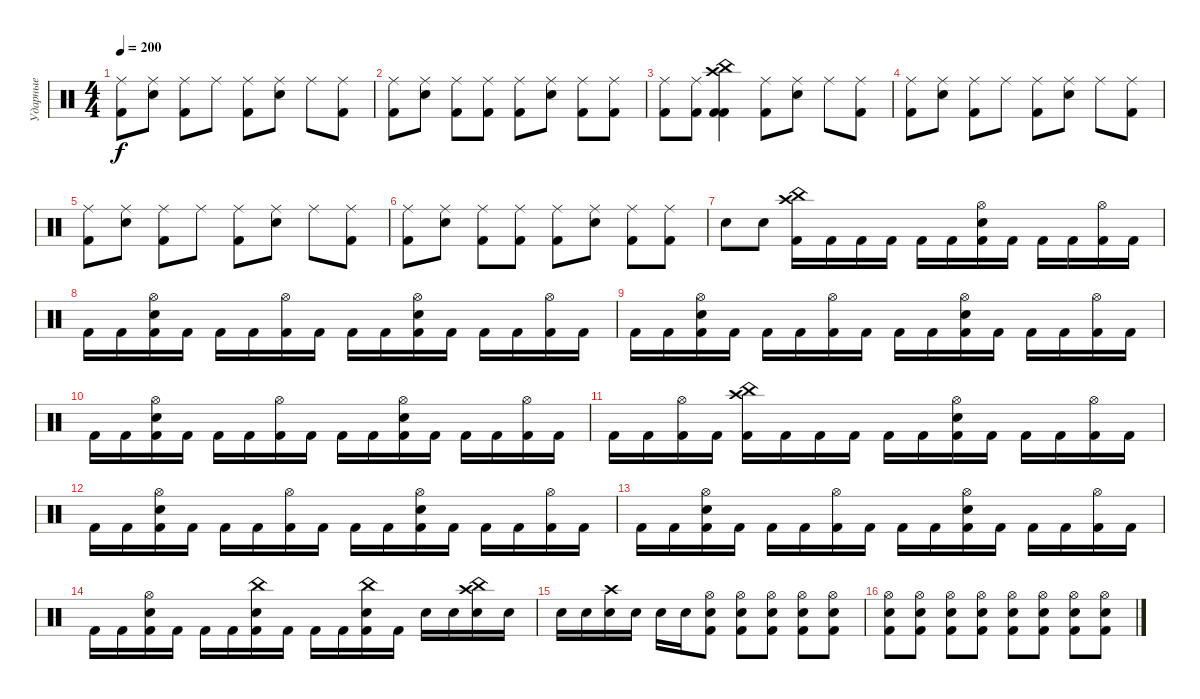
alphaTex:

\track ("Ударные" "Ударные") {instrument percussion}
\staff {score}
\articulation defaults
\ts (4 4)
\tempo 200
\clef neutral
\ks c
("Kick (hit) 2" "Ride (middle)").8{dy f} ("Electric Snare (hit)" "Ride (middle)").8 ("Kick (hit) 2" "Ride (middle)").8 "Ride (middle)".8 ("Kick (hit) 2" "Ride (middle)").8 ("Electric Snare (hit)" "Ride (middle)").8 "Ride (middle)".8 ("Kick (hit) 2" "Ride (middle)").8 |
("Kick (hit) 2" "Ride (middle)").8 ("Electric Snare (hit)" "Ride (middle)").8 ("Kick (hit) 2" "Ride (middle)").8 ("Kick (hit) 2" "Ride (middle)").8 ("Kick (hit) 2" "Ride (middle)").8 ("Electric Snare (hit)" "Ride (middle)").8 ("Kick (hit) 2" "Ride (middle)").8 ("Kick (hit) 2" "Ride (middle)").8 |
("Kick (hit) 2" "Ride (middle)").8 ("Kick (hit) 2" "Ride (middle)").8 ("Kick (hit) 2" "China (hit)" "Crash high (hit)" "Kick (hit) 2").4 ("Kick (hit) 2" "Ride (middle)").8 ("Electric Snare (hit)" "Ride (middle)").8 "Ride (middle)".8 ("Kick (hit) 2" "Ride (middle)").8 |
("Kick (hit) 2" "Ride (middle)").8 ("Electric Snare (hit)" "Ride (middle)").8 ("Kick (hit) 2" "Ride (middle)").8 "Ride (middle)".8 ("Kick (hit) 2" "Ride (middle)").8 ("Electric Snare (hit)" "Ride (middle)").8 "Ride (middle)".8 ("Kick (hit) 2" "Ride (middle)").8 |
("Kick (hit) 2" "Ride (middle)").8 ("Electric Snare (hit)" "Ride (middle)").8 ("Kick (hit) 2" "Ride (middle)").8 "Ride (middle)".8 ("Kick (hit) 2" "Ride (middle)").8 ("Electric Snare (hit)" "Ride (middle)").8 "Ride (middle)".8 ("Kick (hit) 2" "Ride (middle)").8 |
("Kick (hit) 2" "Ride (middle)").8 ("Electric Snare (hit)" "Ride (middle)").8 ("Kick (hit) 2" "Ride (middle)").8 ("Kick (hit) 2" "Ride (middle)").8 ("Kick (hit) 2" "Ride (middle)").8 ("Electric Snare (hit)" "Ride (middle)").8 ("Kick (hit) 2" "Ride (middle)").8 ("Kick (hit) 2" "Ride (middle)").8 |
"Electric Snare (hit)".8 "Electric Snare (hit)".8 ("Kick (hit) 2" "Crash high (hit)" "China (hit)").16 "Kick (hit) 2".16 "Kick (hit) 2".16 "Kick (hit) 2".16 "Kick (hit) 2".16 "Kick (hit) 2".16 ("Kick (hit) 2" "Electric Snare (hit)" "Hi-Hat (open)").16 "Kick (hit) 2".16 "Kick (hit) 2".16 "Kick (hit) 2".16 ("Kick (hit) 2" "Hi-Hat (open)").16 "Kick (hit) 2".16 |
"Kick (hit) 2".16 "Kick (hit) 2".16 ("Kick (hit) 2" "Electric Snare (hit)" "Hi-Hat (open)").16 "Kick (hit) 2".16 "Kick (hit) 2".16 "Kick (hit) 2".16 ("Kick (hit) 2" "Hi-Hat (open)").16 "Kick (hit) 2".16 "Kick (hit) 2".16 "Kick (hit) 2".16 ("Kick (hit) 2" "Electric Snare (hit)" "Hi-Hat (open)").16 "Kick (hit) 2".16 "Kick (hit) 2".16 "Kick (hit) 2".16 ("Kick (hit) 2" "Hi-Hat (open)").16 "Kick (hit) 2".16 |
"Kick (hit) 2".16 "Kick (hit) 2".16 ("Kick (hit) 2" "Electric Snare (hit)" "Hi-Hat (open)").16 "Kick (hit) 2".16 "Kick (hit) 2".16 "Kick (hit) 2".16 ("Kick (hit) 2" "Hi-Hat (open)").16 "Kick (hit) 2".16 "Kick (hit) 2".16 "Kick (hit) 2".16 ("Kick (hit) 2" "Electric Snare (hit)" "Hi-Hat (open)").16 "Kick (hit) 2".16 "Kick (hit) 2".16 "Kick (hit) 2".16 ("Kick (hit) 2" "Hi-Hat (open)").16 "Kick (hit) 2".16 |
"Kick (hit) 2".16 "Kick (hit) 2".16 ("Kick (hit) 2" "Electric Snare (hit)" "Hi-Hat (open)").16 "Kick (hit) 2".16 "Kick (hit) 2".16 "Kick (hit) 2".16 ("Kick (hit) 2" "Hi-Hat (open)").16 "Kick (hit) 2".16 "Kick (hit) 2".16 "Kick (hit) 2".16 ("Kick (hit) 2" "Electric Snare (hit)" "Hi-Hat (open)").16 "Kick (hit) 2".16 "Kick (hit) 2".16 "Kick (hit) 2".16 ("Kick (hit) 2" "Hi-Hat (open)").16 "Kick (hit) 2".16 |
"Kick (hit) 2".16 "Kick (hit) 2".16 ("Kick (hit) 2" "Hi-Hat (open)").16 "Kick (hit) 2".16 ("Kick (hit) 2" "Crash high (hit)" "China (hit)").16 "Kick (hit) 2".16 "Kick (hit) 2".16 "Kick (hit) 2".16 "Kick (hit) 2".16 "Kick (hit) 2".16 ("Kick (hit) 2" "Electric Snare (hit)" "Hi-Hat (open)").16 "Kick (hit) 2".16 "Kick (hit) 2".16 "Kick (hit) 2".16 ("Kick (hit) 2" "Hi-Hat (open)").16 "Kick (hit) 2".16 |
"Kick (hit) 2".16 "Kick (hit) 2".16 ("Kick (hit) 2" "Electric Snare (hit)" "Hi-Hat (open)").16 "Kick (hit) 2".16 "Kick (hit) 2".16 "Kick (hit) 2".16 ("Kick (hit) 2" "Hi-Hat (open)").16 "Kick (hit) 2".16 "Kick (hit) 2".16 "Kick (hit) 2".16 ("Kick (hit) 2" "Electric Snare (hit)" "Hi-Hat (open)").16 "Kick (hit) 2".16 "Kick (hit) 2".16 "Kick (hit) 2".16 ("Kick (hit) 2" "Hi-Hat (open)").16 "Kick (hit) 2".16 |
"Kick (hit) 2".16 "Kick (hit) 2".16 ("Kick (hit) 2" "Electric Snare (hit)" "Hi-Hat (open)").16 "Kick (hit) 2".16 "Kick (hit) 2".16 "Kick (hit) 2".16 ("Kick (hit) 2" "Hi-Hat (open)").16 "Kick (hit) 2".16 "Kick (hit) 2".16 "Kick (hit) 2".16 ("Kick (hit) 2" "Electric Snare (hit)" "Hi-Hat (open)").16 "Kick (hit) 2".16 "Kick (hit) 2".16 "Kick (hit) 2".16 ("Kick (hit) 2" "Hi-Hat (open)").16 "Kick (hit) 2".16 |
"Kick (hit) 2".16 "Kick (hit) 2".16 ("Kick (hit) 2" "Electric Snare (hit)" "Hi-Hat (open)").16 "Kick (hit) 2".16 "Kick (hit) 2".16 "Kick (hit) 2".16 ("Kick (hit) 2" "Electric Snare (hit)" "China (hit)").16 "Kick (hit) 2".16 "Kick (hit) 2".16 "Kick (hit) 2".16 ("Kick (hit) 2" "Electric Snare (hit)" "China (hit)").16 "Kick (hit) 2".16 "Electric Snare (hit)".16 "Electric Snare (hit)".16 ("Electric Snare (hit)" "Crash high (hit)" "China (hit)").16 "Electric Snare (hit)".16 |
"Electric Snare (hit)".16 "Electric Snare (hit)".16 ("Electric Snare (hit)" "Crash high (hit)").16 "Electric Snare (hit)".16 "Electric Snare (hit)".16 "Electric Snare (hit)".16 ("Kick (hit) 2" "Electric Snare (hit)" "Hi-Hat (open)").8 ("Hi-Hat (open)" "Kick (hit) 2" "Electric Snare (hit)").8 ("Electric Snare (hit)" "Kick (hit) 2" "Hi-Hat (open)").8 ("Hi-Hat (open)" "Kick (hit) 2" "Electric Snare (hit)").8 ("Electric Snare (hit)" "Kick (hit) 2" "Hi-Hat (open)").8 |
("Kick (hit) 2" "Electric Snare (hit)" "Hi-Hat (open)").8 ("Hi-Hat (open)" "Kick (hit) 2" "Electric Snare (hit)").8 ("Electric Snare (hit)" "Kick (hit) 2" "Hi-Hat (open)").8 ("Hi-Hat (open)" "Kick (hit) 2" "Electric Snare (hit)").8 ("Electric Snare (hit)" "Kick (hit) 2" "Hi-Hat (open)").8 ("Hi-Hat (open)" "Kick (hit) 2" "Electric Snare (hit)").8 ("Electric Snare (hit)" "Kick (hit) 2" "Hi-Hat (open)").8 ("Hi-Hat (open)" "Kick (hit) 2" "Electric Snare (hit)").8
